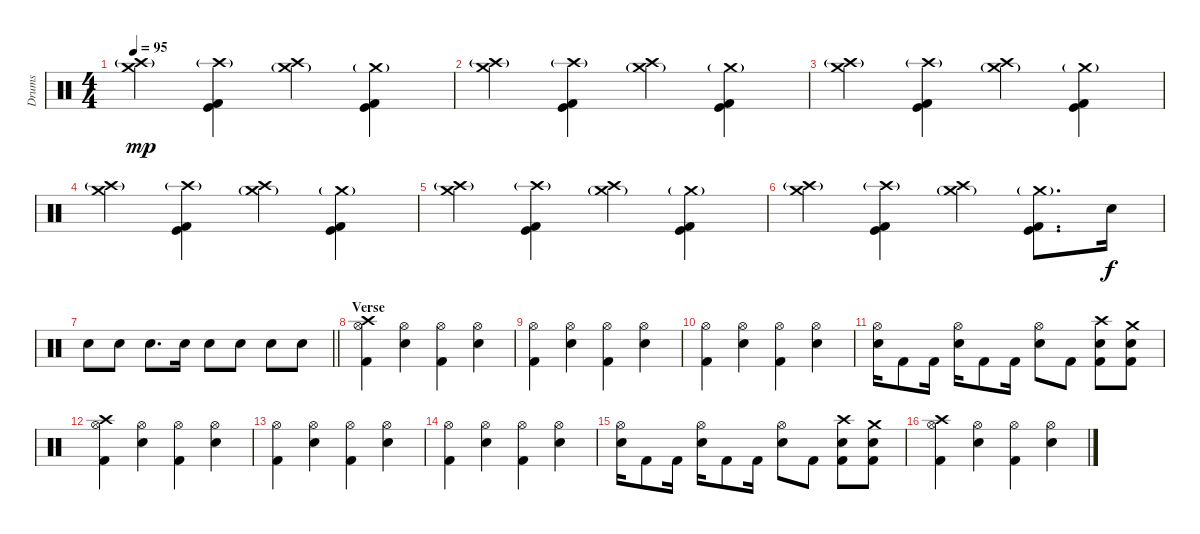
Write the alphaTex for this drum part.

\track ("Drums" "Drums") {instrument percussion}
\staff {score}
\articulation defaults
\ts (4 4)
\tempo 95
\clef neutral
\ks c
("Crash medium (hit)" "Crash high (hit)"{g}).4{dy mp} ("Crash high (hit)"{g} "Kick (hit)" "Kick (hit) 2").4 ("Crash high (hit)" "Crash medium (hit)"{g}).4 ("Crash medium (hit)"{g} "Kick (hit)" "Kick (hit) 2").4 |
("Crash medium (hit)" "Crash high (hit)"{g}).4 ("Crash high (hit)"{g} "Kick (hit)" "Kick (hit) 2").4 ("Crash high (hit)" "Crash medium (hit)"{g}).4 ("Crash medium (hit)"{g} "Kick (hit)" "Kick (hit) 2").4 |
("Crash medium (hit)" "Crash high (hit)"{g}).4 ("Crash high (hit)"{g} "Kick (hit)" "Kick (hit) 2").4 ("Crash high (hit)" "Crash medium (hit)"{g}).4 ("Crash medium (hit)"{g} "Kick (hit)" "Kick (hit) 2").4 |
("Crash medium (hit)" "Crash high (hit)"{g}).4 ("Crash high (hit)"{g} "Kick (hit)" "Kick (hit) 2").4 ("Crash high (hit)" "Crash medium (hit)"{g}).4 ("Crash medium (hit)"{g} "Kick (hit)" "Kick (hit) 2").4 |
("Crash medium (hit)" "Crash high (hit)"{g}).4 ("Crash high (hit)"{g} "Kick (hit)" "Kick (hit) 2").4 ("Crash high (hit)" "Crash medium (hit)"{g}).4 ("Crash medium (hit)"{g} "Kick (hit)" "Kick (hit) 2").4 |
("Crash medium (hit)" "Crash high (hit)"{g}).4 ("Crash high (hit)"{g} "Kick (hit)" "Kick (hit) 2").4 ("Crash high (hit)" "Crash medium (hit)"{g}).4 ("Crash medium (hit)"{g} "Kick (hit)" "Kick (hit) 2").8{d} "Electric Snare (hit)".16{dy f} |
\barLineRight lightlight "Electric Snare (hit)".8 "Electric Snare (hit)".8 "Electric Snare (hit)".8{d} "Electric Snare (hit)".16 "Electric Snare (hit)".8 "Electric Snare (hit)".8 "Electric Snare (hit)".8 "Electric Snare (hit)".8
|
\section ("" "Verse")
("Crash high (hit)" "Hi-Hat (open)" "Kick (hit) 2").4 ("Hi-Hat (open)" "Electric Snare (hit)").4 ("Hi-Hat (open)" "Kick (hit) 2").4 ("Hi-Hat (open)" "Electric Snare (hit)").4 |
("Hi-Hat (open)" "Kick (hit) 2").4 ("Hi-Hat (open)" "Electric Snare (hit)").4 ("Hi-Hat (open)" "Kick (hit) 2").4 ("Hi-Hat (open)" "Electric Snare (hit)").4 |
("Hi-Hat (open)" "Kick (hit) 2").4 ("Hi-Hat (open)" "Electric Snare (hit)").4 ("Hi-Hat (open)" "Kick (hit) 2").4 ("Hi-Hat (open)" "Electric Snare (hit)").4 |
("Hi-Hat (open)" "Electric Snare (hit)").16 "Kick (hit) 2".8 "Kick (hit) 2".16 ("Hi-Hat (open)" "Electric Snare (hit)").16 "Kick (hit) 2".8 "Kick (hit) 2".16 ("Hi-Hat (open)" "Electric Snare (hit)").8 "Kick (hit) 2".8 ("Crash high (hit)" "Electric Snare (hit)" "Kick (hit) 2").8 ("Crash medium (hit)" "Electric Snare (hit)" "Kick (hit) 2").8 |
("Crash high (hit)" "Hi-Hat (open)" "Kick (hit) 2").4 ("Hi-Hat (open)" "Electric Snare (hit)").4 ("Hi-Hat (open)" "Kick (hit) 2").4 ("Hi-Hat (open)" "Electric Snare (hit)").4 |
("Hi-Hat (open)" "Kick (hit) 2").4 ("Hi-Hat (open)" "Electric Snare (hit)").4 ("Hi-Hat (open)" "Kick (hit) 2").4 ("Hi-Hat (open)" "Electric Snare (hit)").4 |
("Hi-Hat (open)" "Kick (hit) 2").4 ("Hi-Hat (open)" "Electric Snare (hit)").4 ("Hi-Hat (open)" "Kick (hit) 2").4 ("Hi-Hat (open)" "Electric Snare (hit)").4 |
("Hi-Hat (open)" "Electric Snare (hit)").16 "Kick (hit) 2".8 "Kick (hit) 2".16 ("Hi-Hat (open)" "Electric Snare (hit)").16 "Kick (hit) 2".8 "Kick (hit) 2".16 ("Hi-Hat (open)" "Electric Snare (hit)").8 "Kick (hit) 2".8 ("Crash high (hit)" "Electric Snare (hit)" "Kick (hit) 2").8 ("Crash medium (hit)" "Electric Snare (hit)" "Kick (hit) 2").8 |
("Crash high (hit)" "Hi-Hat (open)" "Kick (hit) 2").4 ("Hi-Hat (open)" "Electric Snare (hit)").4 ("Hi-Hat (open)" "Kick (hit) 2").4 ("Hi-Hat (open)" "Electric Snare (hit)").4
